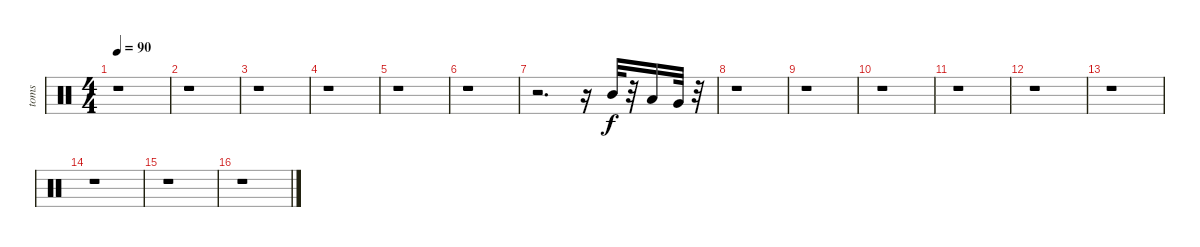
\track ("toms" "toms") {instrument percussion}
\staff {score}
\articulation defaults
\ts (4 4)
\tempo 90
\clef neutral
\ks c
r.1{dy f} |
r.1 |
r.1 |
r.1 |
r.1 |
r.1 |
r.2{d} r.16 "Mid Tom (hit)".32 r.32 "Low Tom (hit)".16 "Very Low Tom (hit)".32 r.32 |
r.1 |
r.1 |
r.1 |
r.1 |
r.1 |
r.1 |
r.1 |
r.1 |
r.1
